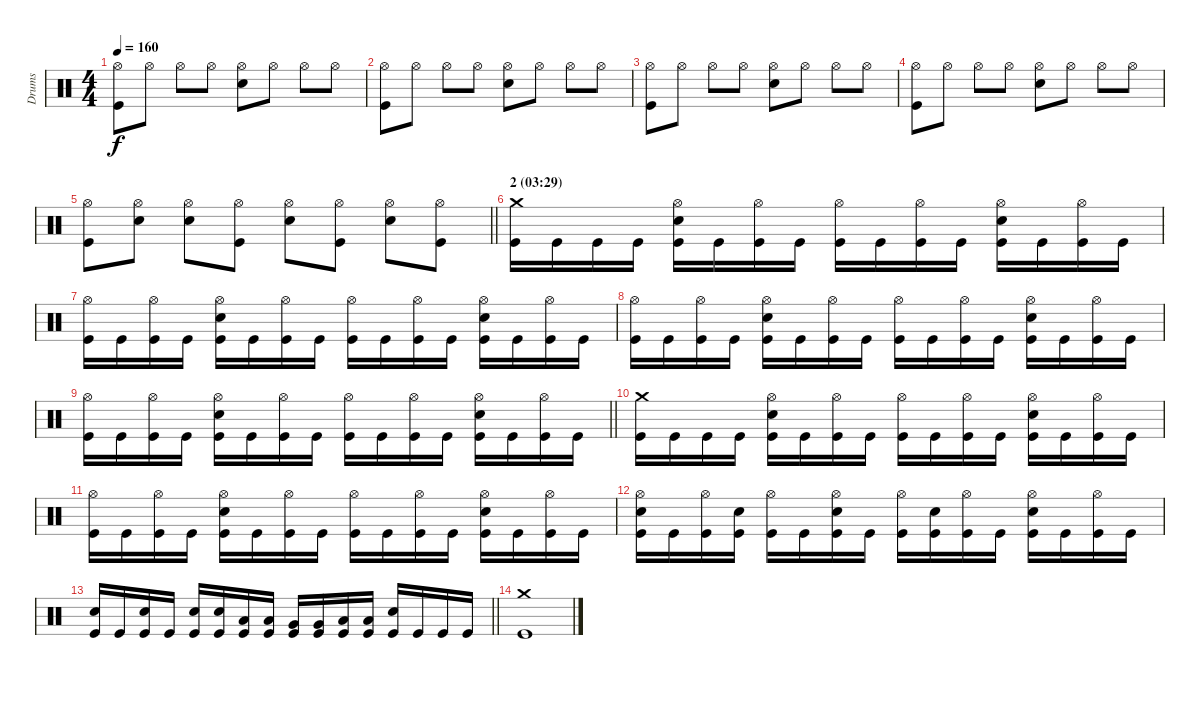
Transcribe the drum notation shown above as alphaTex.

\track ("Drums" "Drums") {instrument percussion}
\staff {score}
\articulation defaults
\ts (4 4)
\tempo 160
\clef neutral
\ks c
("Hi-Hat (open)" "Kick (hit)").8{dy f} "Hi-Hat (open)".8 "Hi-Hat (open)".8 "Hi-Hat (open)".8 ("Hi-Hat (open)" "Electric Snare (hit)").8 "Hi-Hat (open)".8 "Hi-Hat (open)".8 "Hi-Hat (open)".8 |
("Hi-Hat (open)" "Kick (hit)").8 "Hi-Hat (open)".8 "Hi-Hat (open)".8 "Hi-Hat (open)".8 ("Hi-Hat (open)" "Electric Snare (hit)").8 "Hi-Hat (open)".8 "Hi-Hat (open)".8 "Hi-Hat (open)".8 |
("Hi-Hat (open)" "Kick (hit)").8 "Hi-Hat (open)".8 "Hi-Hat (open)".8 "Hi-Hat (open)".8 ("Hi-Hat (open)" "Electric Snare (hit)").8 "Hi-Hat (open)".8 "Hi-Hat (open)".8 "Hi-Hat (open)".8 |
("Hi-Hat (open)" "Kick (hit)").8 "Hi-Hat (open)".8 "Hi-Hat (open)".8 "Hi-Hat (open)".8 ("Hi-Hat (open)" "Electric Snare (hit)").8 "Hi-Hat (open)".8 "Hi-Hat (open)".8 "Hi-Hat (open)".8 |
\barLineRight lightlight
("Hi-Hat (open)" "Kick (hit)").8 ("Hi-Hat (open)" "Electric Snare (hit)").8 ("Hi-Hat (open)" "Electric Snare (hit)").8 ("Hi-Hat (open)" "Kick (hit)").8 ("Hi-Hat (open)" "Electric Snare (hit)").8 ("Hi-Hat (open)" "Kick (hit)").8 ("Hi-Hat (open)" "Electric Snare (hit)").8 ("Hi-Hat (open)" "Kick (hit)").8 |
\section ("" "2 (03:29)")
("Crash medium (hit)" "Kick (hit)").16 "Kick (hit)".16 "Kick (hit)".16 "Kick (hit)".16 ("Hi-Hat (open)" "Electric Snare (hit)" "Kick (hit)").16 "Kick (hit)".16 ("Hi-Hat (open)" "Kick (hit)").16 "Kick (hit)".16 ("Hi-Hat (open)" "Kick (hit)").16 "Kick (hit)".16 ("Hi-Hat (open)" "Kick (hit)").16 "Kick (hit)".16 ("Hi-Hat (open)" "Electric Snare (hit)" "Kick (hit)").16 "Kick (hit)".16 ("Hi-Hat (open)" "Kick (hit)").16 "Kick (hit)".16 |
("Hi-Hat (open)" "Kick (hit)").16 "Kick (hit)".16 ("Hi-Hat (open)" "Kick (hit)").16 "Kick (hit)".16 ("Hi-Hat (open)" "Electric Snare (hit)" "Kick (hit)").16 "Kick (hit)".16 ("Hi-Hat (open)" "Kick (hit)").16 "Kick (hit)".16 ("Hi-Hat (open)" "Kick (hit)").16 "Kick (hit)".16 ("Hi-Hat (open)" "Kick (hit)").16 "Kick (hit)".16 ("Hi-Hat (open)" "Electric Snare (hit)" "Kick (hit)").16 "Kick (hit)".16 ("Hi-Hat (open)" "Kick (hit)").16 "Kick (hit)".16 |
("Hi-Hat (open)" "Kick (hit)").16 "Kick (hit)".16 ("Hi-Hat (open)" "Kick (hit)").16 "Kick (hit)".16 ("Hi-Hat (open)" "Electric Snare (hit)" "Kick (hit)").16 "Kick (hit)".16 ("Hi-Hat (open)" "Kick (hit)").16 "Kick (hit)".16 ("Hi-Hat (open)" "Kick (hit)").16 "Kick (hit)".16 ("Hi-Hat (open)" "Kick (hit)").16 "Kick (hit)".16 ("Hi-Hat (open)" "Electric Snare (hit)" "Kick (hit)").16 "Kick (hit)".16 ("Hi-Hat (open)" "Kick (hit)").16 "Kick (hit)".16 |
\barLineRight lightlight
("Hi-Hat (open)" "Kick (hit)").16 "Kick (hit)".16 ("Hi-Hat (open)" "Kick (hit)").16 "Kick (hit)".16 ("Hi-Hat (open)" "Electric Snare (hit)" "Kick (hit)").16 "Kick (hit)".16 ("Hi-Hat (open)" "Kick (hit)").16 "Kick (hit)".16 ("Hi-Hat (open)" "Kick (hit)").16 "Kick (hit)".16 ("Hi-Hat (open)" "Kick (hit)").16 "Kick (hit)".16 ("Hi-Hat (open)" "Electric Snare (hit)" "Kick (hit)").16 "Kick (hit)".16 ("Hi-Hat (open)" "Kick (hit)").16 "Kick (hit)".16 |
("Crash medium (hit)" "Kick (hit)").16 "Kick (hit)".16 "Kick (hit)".16 "Kick (hit)".16 ("Hi-Hat (open)" "Electric Snare (hit)" "Kick (hit)").16 "Kick (hit)".16 ("Hi-Hat (open)" "Kick (hit)").16 "Kick (hit)".16 ("Hi-Hat (open)" "Kick (hit)").16 "Kick (hit)".16 ("Hi-Hat (open)" "Kick (hit)").16 "Kick (hit)".16 ("Hi-Hat (open)" "Electric Snare (hit)" "Kick (hit)").16 "Kick (hit)".16 ("Hi-Hat (open)" "Kick (hit)").16 "Kick (hit)".16 |
("Hi-Hat (open)" "Kick (hit)").16 "Kick (hit)".16 ("Hi-Hat (open)" "Kick (hit)").16 "Kick (hit)".16 ("Hi-Hat (open)" "Electric Snare (hit)" "Kick (hit)").16 "Kick (hit)".16 ("Hi-Hat (open)" "Kick (hit)").16 "Kick (hit)".16 ("Hi-Hat (open)" "Kick (hit)").16 "Kick (hit)".16 ("Hi-Hat (open)" "Kick (hit)").16 "Kick (hit)".16 ("Hi-Hat (open)" "Electric Snare (hit)" "Kick (hit)").16 "Kick (hit)".16 ("Hi-Hat (open)" "Kick (hit)").16 "Kick (hit)".16 |
("Hi-Hat (open)" "Electric Snare (hit)" "Kick (hit)").16 "Kick (hit)".16 ("Hi-Hat (open)" "Kick (hit)").16 ("Electric Snare (hit)" "Kick (hit)").16 ("Hi-Hat (open)" "Kick (hit)").16 "Kick (hit)".16 ("Hi-Hat (open)" "Electric Snare (hit)" "Kick (hit)").16 "Kick (hit)".16 ("Hi-Hat (open)" "Kick (hit)").16 ("Electric Snare (hit)" "Kick (hit)").16 ("Hi-Hat (open)" "Kick (hit)").16 "Kick (hit)".16 ("Hi-Hat (open)" "Electric Snare (hit)" "Kick (hit)").16 "Kick (hit)".16 ("Hi-Hat (open)" "Kick (hit)").16 "Kick (hit)".16 |
\barLineRight lightlight
("Electric Snare (hit)" "Kick (hit)").16 "Kick (hit)".16 ("Electric Snare (hit)" "Kick (hit)").16 "Kick (hit)".16 ("Electric Snare (hit)" "Kick (hit)").16 ("Electric Snare (hit)" "Kick (hit)").16 ("Low Tom (hit)" "Kick (hit)").16 ("Low Tom (hit)" "Kick (hit)").16 ("Very Low Tom (hit)" "Kick (hit)").16 ("Very Low Tom (hit)" "Kick (hit)").16 ("Low Floor Tom (hit)" "Kick (hit)").16 ("Low Floor Tom (hit)" "Kick (hit)").16 ("Electric Snare (hit)" "Kick (hit)").16 "Kick (hit)".16 "Kick (hit)".16 "Kick (hit)".16 |
("Crash medium (hit)" "Kick (hit)").1
